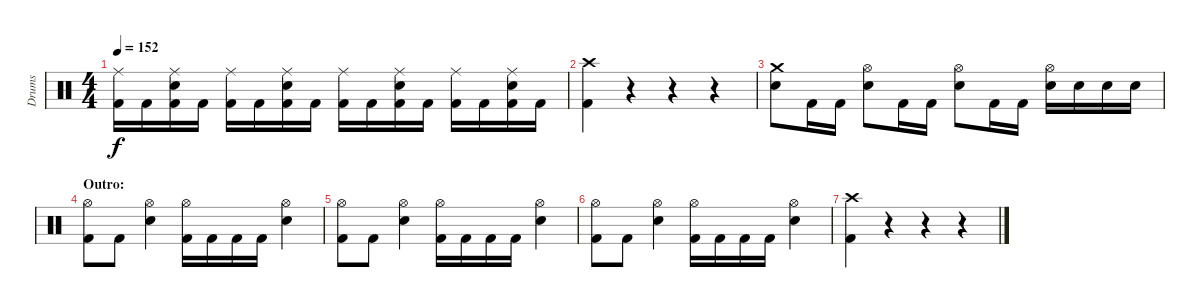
\track ("Drums" "Drums") {instrument percussion}
\staff {score}
\articulation defaults
\ts (4 4)
\tempo 152
\clef neutral
\ks c
("Ride (middle)" "Kick (hit) 2").16{dy f} "Kick (hit) 2".16 ("Ride (middle)" "Electric Snare (hit)" "Kick (hit) 2").16 "Kick (hit) 2".16 ("Ride (middle)" "Kick (hit) 2").16 "Kick (hit) 2".16 ("Ride (middle)" "Electric Snare (hit)" "Kick (hit) 2").16 "Kick (hit) 2".16 ("Ride (middle)" "Kick (hit) 2").16 "Kick (hit) 2".16 ("Ride (middle)" "Electric Snare (hit)" "Kick (hit) 2").16 "Kick (hit) 2".16 ("Ride (middle)" "Kick (hit) 2").16 "Kick (hit) 2".16 ("Ride (middle)" "Electric Snare (hit)" "Kick (hit) 2").16 "Kick (hit) 2".16 |
("Crash high (hit)" "Kick (hit) 2").4 r.4 r.4 r.4 |
("Crash medium (hit)" "Electric Snare (hit)").8 "Kick (hit) 2".16 "Kick (hit) 2".16 ("Hi-Hat (open)" "Electric Snare (hit)").8 "Kick (hit) 2".16 "Kick (hit) 2".16 ("Hi-Hat (open)" "Electric Snare (hit)").8 "Kick (hit) 2".16 "Kick (hit) 2".16 ("Hi-Hat (open)" "Electric Snare (hit)").16 "Electric Snare (hit)".16 "Electric Snare (hit)".16 "Electric Snare (hit)".16 |
\section ("" "Outro:")
("Hi-Hat (open)" "Kick (hit) 2").8 "Kick (hit) 2".8 ("Hi-Hat (open)" "Electric Snare (hit)").4 ("Hi-Hat (open)" "Kick (hit) 2").16 "Kick (hit) 2".16 "Kick (hit) 2".16 "Kick (hit) 2".16 ("Hi-Hat (open)" "Electric Snare (hit)").4 |
("Hi-Hat (open)" "Kick (hit) 2").8 "Kick (hit) 2".8 ("Hi-Hat (open)" "Electric Snare (hit)").4 ("Hi-Hat (open)" "Kick (hit) 2").16 "Kick (hit) 2".16 "Kick (hit) 2".16 "Kick (hit) 2".16 ("Hi-Hat (open)" "Electric Snare (hit)").4 |
("Hi-Hat (open)" "Kick (hit) 2").8 "Kick (hit) 2".8 ("Hi-Hat (open)" "Electric Snare (hit)").4 ("Hi-Hat (open)" "Kick (hit) 2").16 "Kick (hit) 2".16 "Kick (hit) 2".16 "Kick (hit) 2".16 ("Hi-Hat (open)" "Electric Snare (hit)").4 |
("Crash high (hit)" "Kick (hit) 2").4 r.4 r.4 r.4
